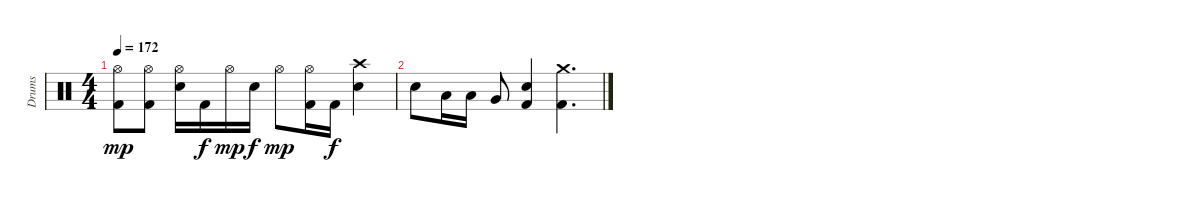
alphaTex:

\track ("Drums" "Drums") {instrument percussion}
\staff {score}
\articulation defaults
\ts (4 4)
\tempo 172
\clef neutral
\ks c
("Hi-Hat (open)" "Kick (hit) 2").8{dy mp} ("Hi-Hat (open)" "Kick (hit) 2").8 ("Hi-Hat (open)" "Snare (hit) 2").16 "Kick (hit) 2".16{dy f} "Hi-Hat (open)".16{dy mp} "Snare (hit) 2".16{dy f} "Hi-Hat (open)".8{dy mp} ("Hi-Hat (open)" "Kick (hit) 2").16 "Kick (hit) 2".16{dy f} ("Crash high (hit)" "Snare (hit) 2").4 |
"Snare (hit) 2".8 "Low Tom (hit)".16 "Low Tom (hit)".16 "Very Low Tom (hit)".8 ("Snare (hit) 2" "Kick (hit) 2").4 ("Crash medium (hit)" "Kick (hit) 2").4{d}
